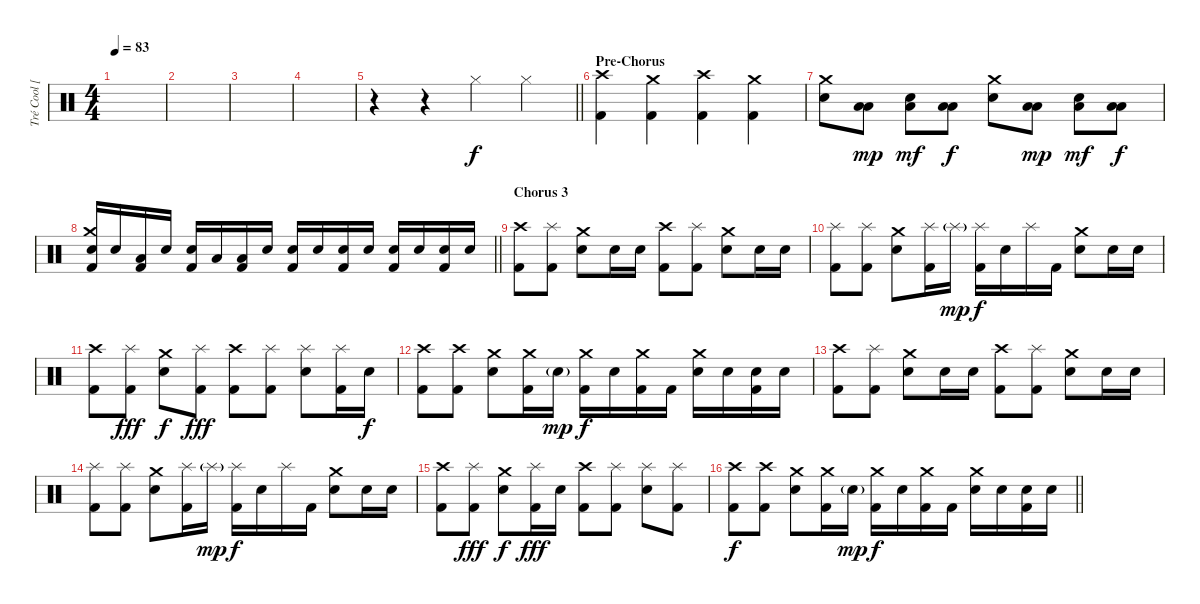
\track ("Tré Cool [Drums]" "Tré Cool [") {instrument percussion}
\staff {score}
\articulation defaults
\ts (4 4)
\tempo 83
\clef neutral
\ks c
|
|
|
|
\barLineRight lightlight
r.4 r.4 "Hi-Hat (closed)".4 "Hi-Hat (closed)".4 |
\section ("" "Pre-Chorus")
("Crash high (hit)" "Kick (hit) 2").4 ("Crash medium (hit)" "Kick (hit) 2").4 ("Crash high (hit)" "Kick (hit) 2").4 ("Crash medium (hit)" "Kick (hit) 2").4 |
("Crash medium (hit)" "Electric Snare (hit)").8 ("Low Floor Tom (hit)" "Low Tom (hit)").8{dy mp} ("Low Floor Tom (hit)" "Electric Snare (hit)").8{dy mf} ("Low Floor Tom (hit)" "Low Tom (hit)").8{dy f} ("Crash medium (hit)" "Electric Snare (hit)").8 ("Low Floor Tom (hit)" "Low Tom (hit)").8{dy mp} ("Low Floor Tom (hit)" "Electric Snare (hit)").8{dy mf} ("Low Floor Tom (hit)" "Low Tom (hit)").8{dy f} |
\barLineRight lightlight
("Crash medium (hit)" "Electric Snare (hit)" "Kick (hit) 2").16 "Electric Snare (hit)".16 ("Low Floor Tom (hit)" "Kick (hit) 2").16 "Electric Snare (hit)".16 ("Electric Snare (hit)" "Kick (hit) 2").16 "Low Tom (hit)".16 ("Low Floor Tom (hit)" "Kick (hit) 2").16 "Electric Snare (hit)".16 ("Electric Snare (hit)" "Kick (hit) 2").16 "Electric Snare (hit)".16 ("Electric Snare (hit)" "Kick (hit) 2").16 "Electric Snare (hit)".16 ("Electric Snare (hit)" "Kick (hit) 2").16 "Electric Snare (hit)".16 ("Electric Snare (hit)" "Kick (hit) 2").16 "Electric Snare (hit)".16 |
\section ("" "Chorus 3")
("Crash high (hit)" "Kick (hit) 2").8 ("Splash (hit)" "Kick (hit) 2").8 ("Crash medium (hit)" "Electric Snare (hit)").8 "Electric Snare (hit)".16 "Electric Snare (hit)".16 ("Crash high (hit)" "Kick (hit) 2").8 ("Splash (hit)" "Kick (hit) 2").8 ("Crash medium (hit)" "Electric Snare (hit)").8 "Electric Snare (hit)".16 "Electric Snare (hit)".16 |
("Splash (hit)" "Kick (hit) 2").8 ("Splash (hit)" "Kick (hit) 2").8 ("Crash medium (hit)" "Electric Snare (hit)").8 ("Splash (hit)" "Kick (hit) 2").16 "Splash (hit)"{g}.16{dy mp} ("Splash (hit)" "Kick (hit) 2").16{dy f} "Electric Snare (hit)".16 "Splash (hit)".16 "Kick (hit) 2".16 ("Crash medium (hit)" "Electric Snare (hit)").8 "Electric Snare (hit)".16 "Electric Snare (hit)".16 |
("Crash high (hit)" "Kick (hit) 2").8 ("Splash (hit)" "Kick (hit) 2").8{dy fff} ("Crash medium (hit)" "Electric Snare (hit)").8{dy f} ("Splash (hit)" "Kick (hit) 2").8{dy fff} ("Crash high (hit)" "Kick (hit) 2").8 ("Splash (hit)" "Kick (hit) 2").8 ("Splash (hit)" "Electric Snare (hit)").8 ("Splash (hit)" "Kick (hit) 2").16 "Electric Snare (hit)".16{dy f} |
("Crash high (hit)" "Kick (hit) 2").8 ("Crash high (hit)" "Kick (hit) 2").8 ("Crash medium (hit)" "Electric Snare (hit)").8 ("Crash medium (hit)" "Kick (hit) 2").16 "Electric Snare (hit)"{g}.16{dy mp} ("Crash medium (hit)" "Kick (hit) 2").16{dy f} "Electric Snare (hit)".16 ("Crash medium (hit)" "Kick (hit) 2").16 "Kick (hit) 2".16 ("Crash medium (hit)" "Electric Snare (hit)").16 "Electric Snare (hit)".16 ("Electric Snare (hit)" "Kick (hit) 2").16 "Electric Snare (hit)".16 |
("Crash high (hit)" "Kick (hit) 2").8 ("Splash (hit)" "Kick (hit) 2").8 ("Crash medium (hit)" "Electric Snare (hit)").8 "Electric Snare (hit)".16 "Electric Snare (hit)".16 ("Crash high (hit)" "Kick (hit) 2").8 ("Splash (hit)" "Kick (hit) 2").8 ("Crash medium (hit)" "Electric Snare (hit)").8 "Electric Snare (hit)".16 "Electric Snare (hit)".16 |
("Splash (hit)" "Kick (hit) 2").8 ("Splash (hit)" "Kick (hit) 2").8 ("Crash medium (hit)" "Electric Snare (hit)").8 ("Splash (hit)" "Kick (hit) 2").16 "Splash (hit)"{g}.16{dy mp} ("Splash (hit)" "Kick (hit) 2").16{dy f} "Electric Snare (hit)".16 "Splash (hit)".16 "Kick (hit) 2".16 ("Crash medium (hit)" "Electric Snare (hit)").8 "Electric Snare (hit)".16 "Electric Snare (hit)".16 |
("Crash high (hit)" "Kick (hit) 2").8 ("Splash (hit)" "Kick (hit) 2").8{dy fff} ("Crash medium (hit)" "Electric Snare (hit)").8{dy f} ("Splash (hit)" "Kick (hit) 2").16{dy fff} "Electric Snare (hit)".16 ("Crash high (hit)" "Kick (hit) 2").8 ("Splash (hit)" "Kick (hit) 2").8 ("Splash (hit)" "Electric Snare (hit)").8 ("Splash (hit)" "Kick (hit) 2").8 |
\barLineRight lightlight
("Crash high (hit)" "Kick (hit) 2").8{dy f} ("Crash high (hit)" "Kick (hit) 2").8 ("Crash medium (hit)" "Electric Snare (hit)").8 ("Crash medium (hit)" "Kick (hit) 2").16 "Electric Snare (hit)"{g}.16{dy mp} ("Crash medium (hit)" "Kick (hit) 2").16{dy f} "Electric Snare (hit)".16 ("Crash medium (hit)" "Kick (hit) 2").16 "Kick (hit) 2".16 ("Crash medium (hit)" "Electric Snare (hit)").16 "Electric Snare (hit)".16 ("Electric Snare (hit)" "Kick (hit) 2").16 "Electric Snare (hit)".16
